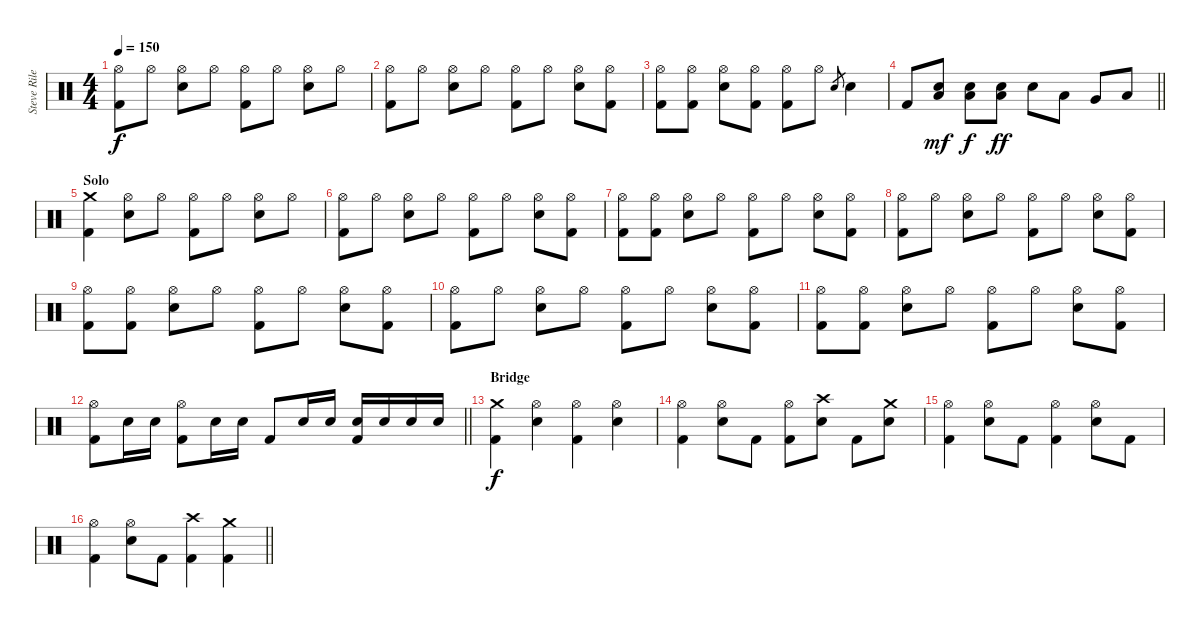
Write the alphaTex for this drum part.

\track ("Steve Riley" "Steve Rile") {instrument percussion}
\staff {score}
\articulation defaults
\ts (4 4)
\tempo 150
\clef neutral
\ks c
("Hi-Hat (open)" "Kick (hit) 2").8{dy f} "Hi-Hat (open)".8 ("Hi-Hat (open)" "Snare (hit) 2").8 "Hi-Hat (open)".8 ("Hi-Hat (open)" "Kick (hit) 2").8 "Hi-Hat (open)".8 ("Hi-Hat (open)" "Snare (hit) 2").8 "Hi-Hat (open)".8 |
("Hi-Hat (open)" "Kick (hit) 2").8 "Hi-Hat (open)".8 ("Hi-Hat (open)" "Snare (hit) 2").8 "Hi-Hat (open)".8 ("Hi-Hat (open)" "Kick (hit) 2").8 "Hi-Hat (open)".8 ("Hi-Hat (open)" "Snare (hit) 2").8 ("Hi-Hat (open)" "Kick (hit) 2").8 |
("Hi-Hat (open)" "Kick (hit) 2").8 ("Hi-Hat (open)" "Kick (hit) 2").8 ("Hi-Hat (open)" "Snare (hit) 2").8 ("Hi-Hat (open)" "Kick (hit) 2").8 ("Hi-Hat (open)" "Kick (hit) 2").8 "Hi-Hat (open)".8 "Snare (hit) 2".8{gr} "Snare (hit) 2".4 |
\barLineRight lightlight "Kick (hit) 2".8
("Low Tom (hit)" "Snare (hit) 2").8{dy mf} ("Low Tom (hit)" "Snare (hit) 2").8{dy f} ("Low Tom (hit)" "Snare (hit) 2").8{dy ff} "Snare (hit) 2".8 "Low Tom (hit)".8 "Very Low Tom (hit)".8 "Low Floor Tom (hit)".8 |
\section ("" "Solo")
("Crash medium (hit)" "Kick (hit) 2").4 ("Hi-Hat (open)" "Snare (hit) 2").8 "Hi-Hat (open)".8 ("Hi-Hat (open)" "Kick (hit) 2").8 "Hi-Hat (open)".8 ("Hi-Hat (open)" "Snare (hit) 2").8 "Hi-Hat (open)".8 |
("Hi-Hat (open)" "Kick (hit) 2").8 "Hi-Hat (open)".8 ("Hi-Hat (open)" "Snare (hit) 2").8 "Hi-Hat (open)".8 ("Hi-Hat (open)" "Kick (hit) 2").8 "Hi-Hat (open)".8 ("Hi-Hat (open)" "Snare (hit) 2").8 ("Hi-Hat (open)" "Kick (hit) 2").8 |
("Hi-Hat (open)" "Kick (hit) 2").8 ("Hi-Hat (open)" "Kick (hit) 2").8 ("Hi-Hat (open)" "Snare (hit) 2").8 "Hi-Hat (open)".8 ("Hi-Hat (open)" "Kick (hit) 2").8 "Hi-Hat (open)".8 ("Hi-Hat (open)" "Snare (hit) 2").8 ("Hi-Hat (open)" "Kick (hit) 2").8 |
("Hi-Hat (open)" "Kick (hit) 2").8 "Hi-Hat (open)".8 ("Hi-Hat (open)" "Snare (hit) 2").8 "Hi-Hat (open)".8 ("Hi-Hat (open)" "Kick (hit) 2").8 "Hi-Hat (open)".8 ("Hi-Hat (open)" "Snare (hit) 2").8 ("Hi-Hat (open)" "Kick (hit) 2").8 |
("Hi-Hat (open)" "Kick (hit) 2").8 ("Hi-Hat (open)" "Kick (hit) 2").8 ("Hi-Hat (open)" "Snare (hit) 2").8 "Hi-Hat (open)".8 ("Hi-Hat (open)" "Kick (hit) 2").8 "Hi-Hat (open)".8 ("Hi-Hat (open)" "Snare (hit) 2").8 ("Hi-Hat (open)" "Kick (hit) 2").8 |
("Hi-Hat (open)" "Kick (hit) 2").8 "Hi-Hat (open)".8 ("Hi-Hat (open)" "Snare (hit) 2").8 "Hi-Hat (open)".8 ("Hi-Hat (open)" "Kick (hit) 2").8 "Hi-Hat (open)".8 ("Hi-Hat (open)" "Snare (hit) 2").8 ("Hi-Hat (open)" "Kick (hit) 2").8 |
("Hi-Hat (open)" "Kick (hit) 2").8 ("Hi-Hat (open)" "Kick (hit) 2").8 ("Hi-Hat (open)" "Snare (hit) 2").8 "Hi-Hat (open)".8 ("Hi-Hat (open)" "Kick (hit) 2").8 "Hi-Hat (open)".8 ("Hi-Hat (open)" "Snare (hit) 2").8 ("Hi-Hat (open)" "Kick (hit) 2").8 |
\barLineRight lightlight
("Hi-Hat (open)" "Kick (hit) 2").8 "Snare (hit) 2".16 "Snare (hit) 2".16 ("Hi-Hat (open)" "Kick (hit) 2").8 "Snare (hit) 2".16 "Snare (hit) 2".16 "Kick (hit) 2".8 "Snare (hit) 2".16 "Snare (hit) 2".16 ("Snare (hit) 2" "Kick (hit) 2").16 "Snare (hit) 2".16 "Snare (hit) 2".16 "Snare (hit) 2".16 |
\section ("" "Bridge")
("Crash medium (hit)" "Kick (hit) 2").4{dy f} ("Hi-Hat (open)" "Snare (hit) 2").4 ("Hi-Hat (open)" "Kick (hit) 2").4 ("Hi-Hat (open)" "Snare (hit) 2").4 |
("Hi-Hat (open)" "Kick (hit) 2").4 ("Hi-Hat (open)" "Snare (hit) 2").8 "Kick (hit) 2".8 ("Hi-Hat (open)" "Kick (hit) 2").8 ("Crash high (hit)" "Snare (hit) 2").8 "Kick (hit) 2".8 ("Crash medium (hit)" "Snare (hit) 2").8 |
("Hi-Hat (open)" "Kick (hit) 2").4 ("Hi-Hat (open)" "Snare (hit) 2").8 "Kick (hit) 2".8 ("Hi-Hat (open)" "Kick (hit) 2").4 ("Hi-Hat (open)" "Snare (hit) 2").8 "Kick (hit) 2".8 |
\barLineRight lightlight
("Hi-Hat (open)" "Kick (hit) 2").4 ("Hi-Hat (open)" "Snare (hit) 2").8 "Kick (hit) 2".8 ("Crash high (hit)" "Kick (hit) 2").4 ("Crash medium (hit)" "Kick (hit) 2").4
